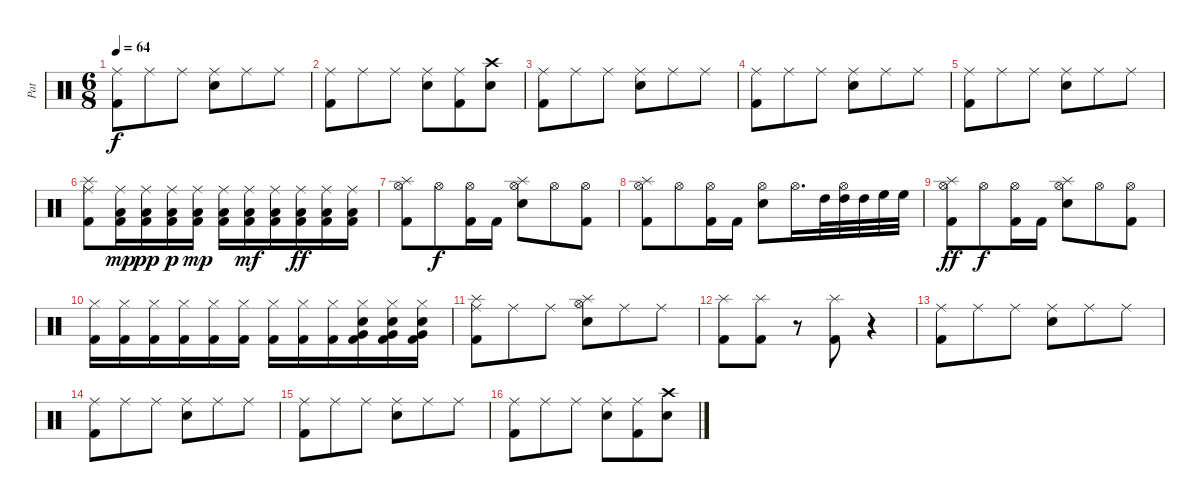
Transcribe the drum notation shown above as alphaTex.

\track ("Pat" "Pat") {instrument percussion}
\staff {score}
\articulation defaults
\ts (6 8)
\tempo 64
\clef neutral
\ks c
("Ride (middle)" "Kick (hit) 2").8{dy f} "Ride (middle)".8 "Ride (middle)".8 ("Ride (middle)" "Snare (hit) 2").8 "Ride (middle)".8 "Ride (middle)".8 |
("Kick (hit) 2" "Ride (middle)").8 "Ride (middle)".8 "Ride (middle)".8 ("Ride (middle)" "Electric Snare (hit)").8 ("Ride (middle)" "Kick (hit) 2").8 ("Crash high (hit)" "Electric Snare (hit)").8 |
("Kick (hit) 2" "Ride (middle)").8 "Ride (middle)".8 "Ride (middle)".8 ("Electric Snare (hit)" "Ride (middle)").8 "Ride (middle)".8 "Ride (middle)".8 |
("Kick (hit) 2" "Ride (middle)").8 "Ride (middle)".8 "Ride (middle)".8 ("Snare (hit) 2" "Ride (middle)").8 "Ride (middle)".8 "Ride (middle)".8 |
("Ride (middle)" "Kick (hit) 2").8 "Ride (middle)".8 "Ride (middle)".8 ("Ride (middle)" "Snare (hit) 2").8 "Ride (middle)".8 "Ride (middle)".8 |
("Kick (hit) 2" "Ride (middle)" "Splash (hit)").8 ("Low Tom (hit)" "Kick (hit) 2" "Ride (middle)").16{dy mp} ("Ride (middle)" "Low Tom (hit)" "Kick (hit) 2").16{dy pp} ("Kick (hit) 2" "Ride (middle)" "Low Tom (hit)").16{dy p} ("Ride (middle)" "Low Tom (hit)" "Kick (hit) 2").16{dy mp} ("Ride (middle)" "Low Tom (hit)" "Kick (hit) 2").16 ("Ride (middle)" "Low Tom (hit)" "Kick (hit) 2").16{dy mf} ("Kick (hit) 2" "Ride (middle)" "Low Tom (hit)").16 ("Ride (middle)" "Kick (hit) 2" "Low Tom (hit)").16{dy ff} ("Kick (hit) 2" "Ride (middle)" "Low Tom (hit)").16 ("Low Tom (hit)" "Ride (middle)" "Kick (hit) 2").16 |
("Hi-Hat (open)" "Kick (hit) 2" "Splash (hit)").8 "Hi-Hat (open)".8{dy f} ("Kick (hit) 2" "Hi-Hat (open)").16 "Kick (hit) 2".16 ("Hi-Hat (open)" "Electric Snare (hit)" "Splash (hit)").8 "Hi-Hat (open)".8 ("Hi-Hat (open)" "Kick (hit) 2").8 |
("Splash (hit)" "Hi-Hat (open)" "Kick (hit) 2").8 "Hi-Hat (open)".8 ("Kick (hit) 2" "Hi-Hat (open)").16 "Kick (hit) 2".16 ("Hi-Hat (open)" "Electric Snare (hit)").8 "Hi-Hat (open)".16{d} "High Tom (hit)".32 ("Hi-Hat (open)" "High Tom (hit)").32 "High Tom (hit)".32 "High Floor Tom (hit)".32 "High Floor Tom (hit)".32 |
("Hi-Hat (open)" "Kick (hit) 2" "Splash (hit)").8{dy ff} "Hi-Hat (open)".8{dy f} ("Kick (hit) 2" "Hi-Hat (open)").16 "Kick (hit) 2".16 ("Hi-Hat (open)" "Electric Snare (hit)" "Splash (hit)").8 "Hi-Hat (open)".8 ("Hi-Hat (open)" "Kick (hit) 2").8 |
("Kick (hit) 2" "Hi-Hat (closed)").16 ("Hi-Hat (closed)" "Kick (hit) 2").16 ("Kick (hit) 2" "Hi-Hat (closed)").16 ("Hi-Hat (closed)" "Kick (hit) 2").16 ("Kick (hit) 2" "Hi-Hat (closed)").16 ("Hi-Hat (closed)" "Kick (hit) 2").16 ("Kick (hit) 2" "Hi-Hat (closed)").16 ("Kick (hit) 2" "Hi-Hat (closed)").16 ("Hi-Hat (closed)" "Kick (hit) 2").16 ("Kick (hit) 2" "Hi-Hat (closed)" "Very Low Tom (hit)" "Electric Snare (hit)").16 ("Kick (hit) 2" "Very Low Tom (hit)" "Hi-Hat (closed)" "Electric Snare (hit)").16 ("Kick (hit) 2" "Hi-Hat (closed)" "Electric Snare (hit)" "Very Low Tom (hit)").16 |
("Splash (hit)" "Kick (hit) 2" "Ride (middle)").8 "Ride (middle)".8 "Ride (middle)".8 ("Splash (hit)" "Electric Snare (hit)" "Hi-Hat (open)").8 "Ride (middle)".8 "Ride (middle)".8 |
("Splash (hit)" "Kick (hit) 2").8 ("Splash (hit)" "Kick (hit) 2").8 r.8 ("Kick (hit) 2" "Splash (hit)").8 r.4 |
("Kick (hit) 2" "Ride (middle)").8 "Ride (middle)".8 "Ride (middle)".8 ("Electric Snare (hit)" "Ride (middle)").8 "Ride (middle)".8 "Ride (middle)".8 |
("Kick (hit) 2" "Ride (middle)").8 "Ride (middle)".8 "Ride (middle)".8 ("Snare (hit) 2" "Ride (middle)").8 "Ride (middle)".8 "Ride (middle)".8 |
("Ride (middle)" "Kick (hit) 2").8 "Ride (middle)".8 "Ride (middle)".8 ("Ride (middle)" "Snare (hit) 2").8 "Ride (middle)".8 "Ride (middle)".8 |
("Kick (hit) 2" "Ride (middle)").8 "Ride (middle)".8 "Ride (middle)".8 ("Ride (middle)" "Electric Snare (hit)").8 ("Ride (middle)" "Kick (hit) 2").8 ("Crash high (hit)" "Electric Snare (hit)").8
